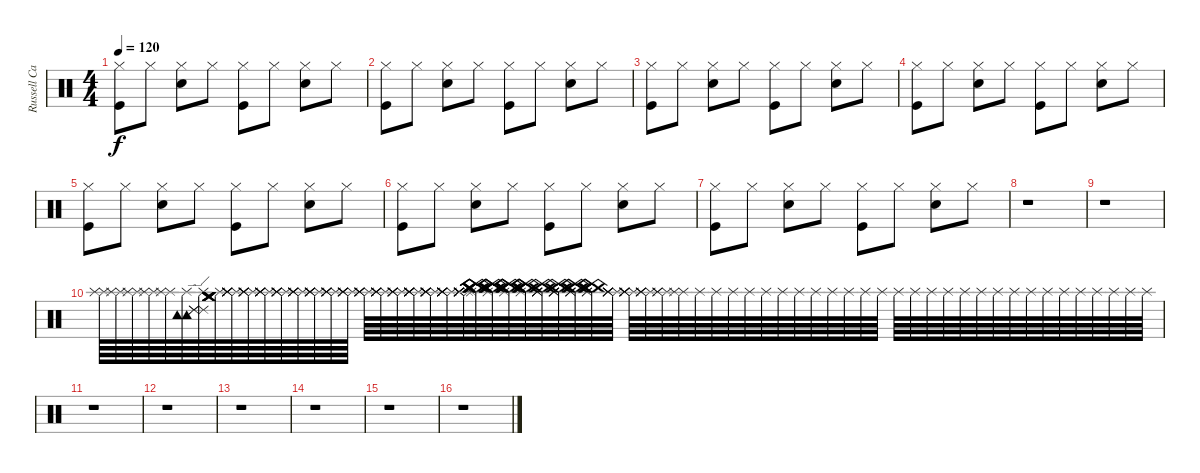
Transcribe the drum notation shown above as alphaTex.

\track ("Russell Cannon" "Russell Ca") {instrument percussion}
\staff {score}
\articulation defaults
\ts (4 4)
\tempo 120
\clef neutral
\ks c
("Hi-Hat (closed)" "Kick (hit)").8{dy f} "Hi-Hat (closed)".8 ("Hi-Hat (closed)" "Electric Snare (hit)").8 "Hi-Hat (closed)".8 ("Hi-Hat (closed)" "Kick (hit)").8 "Hi-Hat (closed)".8 ("Hi-Hat (closed)" "Electric Snare (hit)").8 "Hi-Hat (closed)".8 |
("Hi-Hat (closed)" "Kick (hit)").8 "Hi-Hat (closed)".8 ("Hi-Hat (closed)" "Electric Snare (hit)").8 "Hi-Hat (closed)".8 ("Hi-Hat (closed)" "Kick (hit)").8 "Hi-Hat (closed)".8 ("Hi-Hat (closed)" "Electric Snare (hit)").8 "Hi-Hat (closed)".8 |
("Hi-Hat (closed)" "Kick (hit)").8 "Hi-Hat (closed)".8 ("Hi-Hat (closed)" "Electric Snare (hit)").8 "Hi-Hat (closed)".8 ("Hi-Hat (closed)" "Kick (hit)").8 "Hi-Hat (closed)".8 ("Hi-Hat (closed)" "Electric Snare (hit)").8 "Hi-Hat (closed)".8 |
("Hi-Hat (closed)" "Kick (hit)").8 "Hi-Hat (closed)".8 ("Hi-Hat (closed)" "Electric Snare (hit)").8 "Hi-Hat (closed)".8 ("Hi-Hat (closed)" "Kick (hit)").8 "Hi-Hat (closed)".8 ("Hi-Hat (closed)" "Electric Snare (hit)").8 "Hi-Hat (closed)".8 |
("Hi-Hat (closed)" "Kick (hit)").8 "Hi-Hat (closed)".8 ("Hi-Hat (closed)" "Electric Snare (hit)").8 "Hi-Hat (closed)".8 ("Hi-Hat (closed)" "Kick (hit)").8 "Hi-Hat (closed)".8 ("Hi-Hat (closed)" "Electric Snare (hit)").8 "Hi-Hat (closed)".8 |
("Hi-Hat (closed)" "Kick (hit)").8 "Hi-Hat (closed)".8 ("Hi-Hat (closed)" "Electric Snare (hit)").8 "Hi-Hat (closed)".8 ("Hi-Hat (closed)" "Kick (hit)").8 "Hi-Hat (closed)".8 ("Hi-Hat (closed)" "Electric Snare (hit)").8 "Hi-Hat (closed)".8 |
("Hi-Hat (closed)" "Kick (hit)").8 "Hi-Hat (closed)".8 ("Hi-Hat (closed)" "Electric Snare (hit)").8 "Hi-Hat (closed)".8 ("Hi-Hat (closed)" "Kick (hit)").8 "Hi-Hat (closed)".8 ("Hi-Hat (closed)" "Electric Snare (hit)").8 "Hi-Hat (closed)".8 |
r.1 |
r.1 |
("Splash (hit)" "Splash (hit)").64 ("Splash (hit)" "Splash (hit)").64 ("Splash (hit)" "Splash (hit)").64 ("Splash (hit)" "Splash (hit)").64 ("Splash (hit)" "Splash (hit)").64 ("Splash (hit)" "Tambourine (hit)" "Tambourine (hit)").64 ("Splash (hit)" "Ride (edge) 2" "Ride (edge) 2" "Ride (edge) 2").64 ("Splash (hit)" "Crash medium (hit)" "Crash medium (hit)" "Crash medium (hit)" "Crash medium (hit)").64 ("Splash (hit)" "Splash (hit)" "Splash (hit)" "Splash (hit)" "Splash (hit)").64 ("Splash (hit)" "Splash (hit)" "Splash (hit)" "Splash (hit)" "Splash (hit)").64 ("Splash (hit)" "Splash (hit)" "Splash (hit)" "Splash (hit)" "Splash (hit)").64 ("Splash (hit)" "Splash (hit)" "Splash (hit)" "Splash (hit)" "Splash (hit)").64 ("Splash (hit)" "Splash (hit)" "Splash (hit)" "Splash (hit)" "Splash (hit)").64 ("Splash (hit)" "Splash (hit)" "Splash (hit)" "Splash (hit)" "Splash (hit)").64 ("Splash (hit)" "Splash (hit)" "Splash (hit)" "Splash (hit)" "Splash (hit)").64 ("Splash (hit)" "Splash (hit)" "Splash (hit)" "Splash (hit)" "Splash (hit)").64 ("Splash (hit)" "Splash (hit)" "Splash (hit)" "Splash (hit)" "Splash (hit)").64 ("Splash (hit)" "Splash (hit)" "Splash (hit)" "Splash (hit)" "Splash (hit)").64 ("Splash (hit)" "Splash (hit)" "Splash (hit)" "Splash (hit)" "Splash (hit)").64 ("Splash (hit)" "Splash (hit)" "Splash (hit)" "Splash (hit)" "Splash (hit)" "Splash (hit)").64 ("Splash (hit)" "Splash (hit)" "Splash (hit)" "Splash (hit)" "Splash (hit)" "Splash (hit)").64 ("Splash (hit)" "Splash (hit)" "Splash (hit)" "Splash (hit)" "Splash (hit)" "Splash (hit)").64 ("Splash (hit)" "Splash (hit)" "Splash (hit)" "Splash (hit)" "Splash (hit)" "Splash (hit)").64 ("Splash (hit)" "China (hit)" "China (hit)" "China (hit)" "China (hit)" "China (hit)").64 ("Splash (hit)" "China (hit)" "China (hit)" "China (hit)" "China (hit)" "China (hit)").64 ("Splash (hit)" "China (hit)" "China (hit)" "China (hit)" "China (hit)" "China (hit)").64 ("Splash (hit)" "China (hit)" "China (hit)" "China (hit)" "China (hit)" "China (hit)").64 ("Splash (hit)" "Splash (hit)" "Splash (hit)" "Splash (hit)" "China (hit)" "China (hit)").64 ("Splash (hit)" "Splash (hit)" "Splash (hit)" "Splash (hit)" "China (hit)" "China (hit)").64 ("Splash (hit)" "Splash (hit)" "Splash (hit)" "China (hit)" "China (hit)" "China (hit)").64 ("Splash (hit)" "Splash (hit)" "China (hit)" "China (hit)" "China (hit)" "China (hit)").64 ("Splash (hit)" "Splash (hit)" "Splash (hit)" "Splash (hit)" "Splash (hit)").64 ("Splash (hit)" "Splash (hit)" "Splash (hit)" "Splash (hit)" "Splash (hit)").64 ("Splash (hit)" "Splash (hit)" "Splash (hit)" "Splash (hit)").64 ("Splash (hit)" "Splash (hit)" "Splash (hit)").64 ("Splash (hit)" "Splash (hit)").64 "Splash (hit)".64 "Splash (hit)".64 "Splash (hit)".64 "Splash (hit)".64 "Splash (hit)".64 "Splash (hit)".64 "Splash (hit)".64 "Splash (hit)".64 "Splash (hit)".64 "Splash (hit)".64 "Splash (hit)".64 "Splash (hit)".64 "Splash (hit)".64 "Splash (hit)".64 "Splash (hit)".64 "Splash (hit)".64 "Splash (hit)".64 "Splash (hit)".64 "Splash (hit)".64 "Splash (hit)".64 "Splash (hit)".64 "Splash (hit)".64 "Splash (hit)".64 "Splash (hit)".64 "Splash (hit)".64 "Splash (hit)".64 "Splash (hit)".64 "Splash (hit)".64 |
r.1 |
r.1 |
r.1 |
r.1 |
r.1 |
r.1
